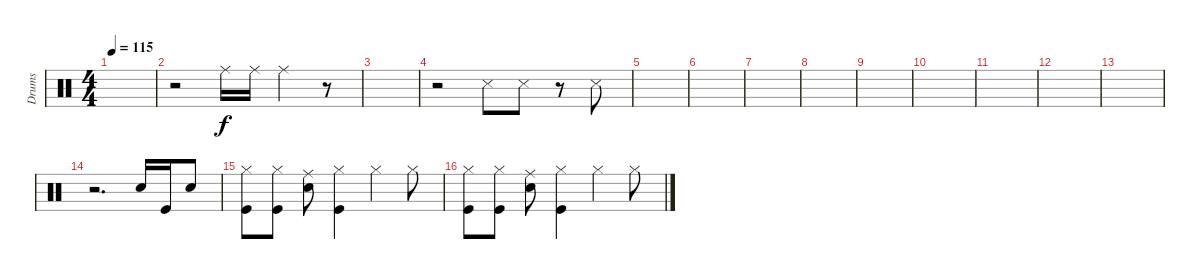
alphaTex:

\track ("Drums" "Drums") {instrument percussion}
\staff {score}
\articulation defaults
\ts (4 4)
\tempo 115
\clef neutral
\ks c
|
r.2 "Ride (middle)".16 "Ride (middle)".16 "Ride (middle)".4 r.8 |
|
r.2 "Snare (side stick) 3".8 "Snare (side stick) 3".8 r.8 "Snare (side stick) 3".8 |
|
|
|
|
|
|
|
|
|
r.2{d} "Electric Snare (hit)".16 "Kick (hit)".16 "Electric Snare (hit)".8 |
("Hi-Hat (closed)" "Kick (hit)").8 ("Hi-Hat (closed)" "Kick (hit)").8 ("Ride (middle)" "Electric Snare (hit)").8 ("Hi-Hat (closed)" "Kick (hit)").4 "Hi-Hat (closed)".4 "Hi-Hat (closed)".8 |
("Hi-Hat (closed)" "Kick (hit)").8 ("Hi-Hat (closed)" "Kick (hit)").8 ("Ride (middle)" "Electric Snare (hit)").8 ("Hi-Hat (closed)" "Kick (hit)").4 "Hi-Hat (closed)".4 "Hi-Hat (closed)".8
